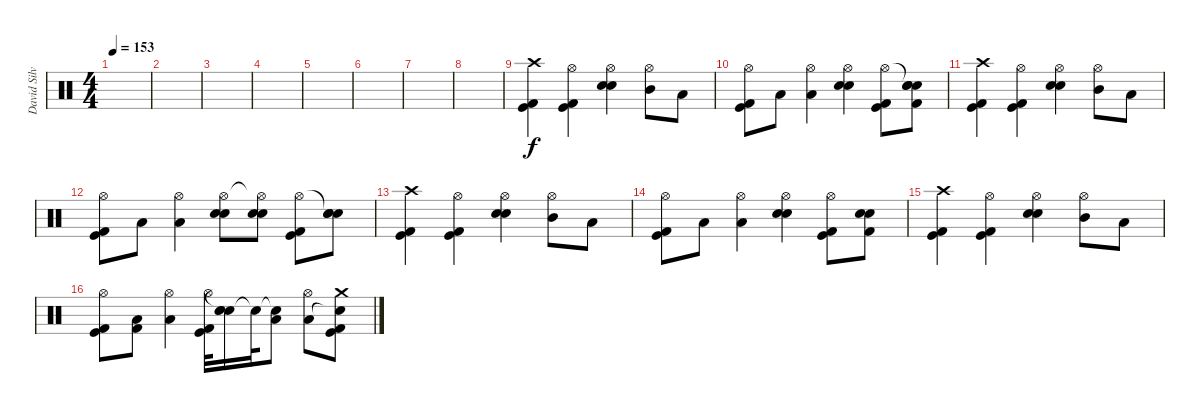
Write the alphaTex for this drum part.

\track ("David Silveria" "David Silv") {instrument percussion}
\staff {score}
\articulation defaults
\ts (4 4)
\tempo 153
\clef neutral
\ks c
|
|
|
|
|
|
|
|
("Crash high (hit)" "Kick (hit)" "Kick (hit) 2").4 ("Hi-Hat (open)" "Kick (hit)" "Kick (hit) 2").4 ("Hi-Hat (open)" "Electric Snare (hit)" "Snare (hit) 2").4 ("Hi-Hat (open)" "Mid Tom (hit)").8 "Low Tom (hit)".8 |
("Hi-Hat (open)" "Kick (hit)" "Kick (hit) 2").8 "Low Tom (hit)".8 ("Hi-Hat (open)" "Low Floor Tom (hit)").4 ("Hi-Hat (open)" "Electric Snare (hit)" "Snare (hit) 2").4 ("Hi-Hat (open)" "Kick (hit)" "Kick (hit) 2").8 ("Snare (hit)"{t} "Electric Snare (hit)" "Kick (hit) 2" "Snare (hit) 2").8 |
("Crash high (hit)" "Kick (hit)" "Kick (hit) 2").4 ("Hi-Hat (open)" "Kick (hit)" "Kick (hit) 2").4 ("Hi-Hat (open)" "Electric Snare (hit)" "Snare (hit) 2").4 ("Hi-Hat (open)" "Mid Tom (hit)").8 "Low Tom (hit)".8 |
("Hi-Hat (open)" "Kick (hit)" "Kick (hit) 2").8 "Low Tom (hit)".8 ("Hi-Hat (open)" "Low Floor Tom (hit)").4 ("Hi-Hat (open)" "Electric Snare (hit)" "Snare (hit) 2").8 ("Hi-Hat (open)"{t} "Electric Snare (hit)" "Snare (hit) 2").8 ("Hi-Hat (open)" "Kick (hit)" "Kick (hit) 2").8 ("Snare (hit)"{t} "Electric Snare (hit)" "Snare (hit) 2").8 |
("Crash high (hit)" "Kick (hit)" "Kick (hit) 2").4 ("Hi-Hat (open)" "Kick (hit)" "Kick (hit) 2").4 ("Hi-Hat (open)" "Electric Snare (hit)" "Snare (hit) 2").4 ("Hi-Hat (open)" "Mid Tom (hit)").8 "Low Tom (hit)".8 |
("Hi-Hat (open)" "Kick (hit)" "Kick (hit) 2").8 "Low Tom (hit)".8 ("Hi-Hat (open)" "Low Floor Tom (hit)").4 ("Hi-Hat (open)" "Electric Snare (hit)" "Snare (hit) 2").4 ("Hi-Hat (open)" "Kick (hit)" "Kick (hit) 2").8 ("Electric Snare (hit)" "Kick (hit) 2" "Snare (hit) 2").8 |
("Crash high (hit)" "Kick (hit)" "Kick (hit) 2").4 ("Hi-Hat (open)" "Kick (hit)" "Kick (hit) 2").4 ("Hi-Hat (open)" "Electric Snare (hit)" "Snare (hit) 2").4 ("Hi-Hat (open)" "Mid Tom (hit)").8 "Low Tom (hit)".8 |
("Hi-Hat (open)" "Kick (hit)" "Kick (hit) 2").8 ("Low Tom (hit)" "Kick (hit) 2").8 ("Hi-Hat (open)" "Low Floor Tom (hit)").4 ("Hi-Hat (open)" "Kick (hit) 2" "Kick (hit)").32 ("Snare (hit)"{t} "Electric Snare (hit)" "Snare (hit) 2").16 "Snare (hit)"{t}.32 ("Snare (hit)"{t} "Low Tom (hit)").8 ("Hi-Hat (open)" "Low Floor Tom (hit)").8 ("Crash medium (hit)" "Snare (hit)"{t} "Kick (hit) 2" "Kick (hit)").8
